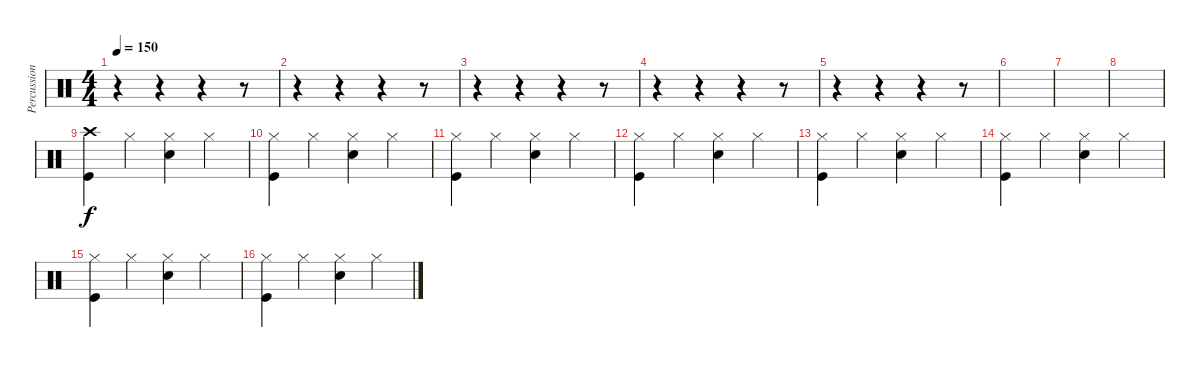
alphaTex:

\track ("Percussion" "Percussion") {instrument percussion}
\staff {score}
\articulation defaults
\ts (4 4)
\tempo 150
\clef neutral
\ks c
r.4{dy f} r.4 r.4 r.8 |
r.4 r.4 r.4 r.8 |
r.4 r.4 r.4 r.8 |
r.4 r.4 r.4 r.8 |
r.4 r.4 r.4 r.8 |
|
|
|
("Crash high (hit)" "Kick (hit)").4 "Hi-Hat (closed)".4 ("Hi-Hat (closed)" "Snare (hit) 2").4 "Hi-Hat (closed)".4 |
("Hi-Hat (closed)" "Kick (hit)").4 "Hi-Hat (closed)".4 ("Hi-Hat (closed)" "Snare (hit) 2").4 "Hi-Hat (closed)".4 |
("Hi-Hat (closed)" "Kick (hit)").4 "Hi-Hat (closed)".4 ("Hi-Hat (closed)" "Snare (hit) 2").4 "Hi-Hat (closed)".4 |
("Hi-Hat (closed)" "Kick (hit)").4 "Hi-Hat (closed)".4 ("Hi-Hat (closed)" "Snare (hit) 2").4 "Hi-Hat (closed)".4 |
("Hi-Hat (closed)" "Kick (hit)").4 "Hi-Hat (closed)".4 ("Hi-Hat (closed)" "Snare (hit) 2").4 "Hi-Hat (closed)".4 |
("Hi-Hat (closed)" "Kick (hit)").4 "Hi-Hat (closed)".4 ("Hi-Hat (closed)" "Snare (hit) 2").4 "Hi-Hat (closed)".4 |
("Hi-Hat (closed)" "Kick (hit)").4 "Hi-Hat (closed)".4 ("Hi-Hat (closed)" "Snare (hit) 2").4 "Hi-Hat (closed)".4 |
("Hi-Hat (closed)" "Kick (hit)").4 "Hi-Hat (closed)".4 ("Hi-Hat (closed)" "Snare (hit) 2").4 "Hi-Hat (closed)".4
